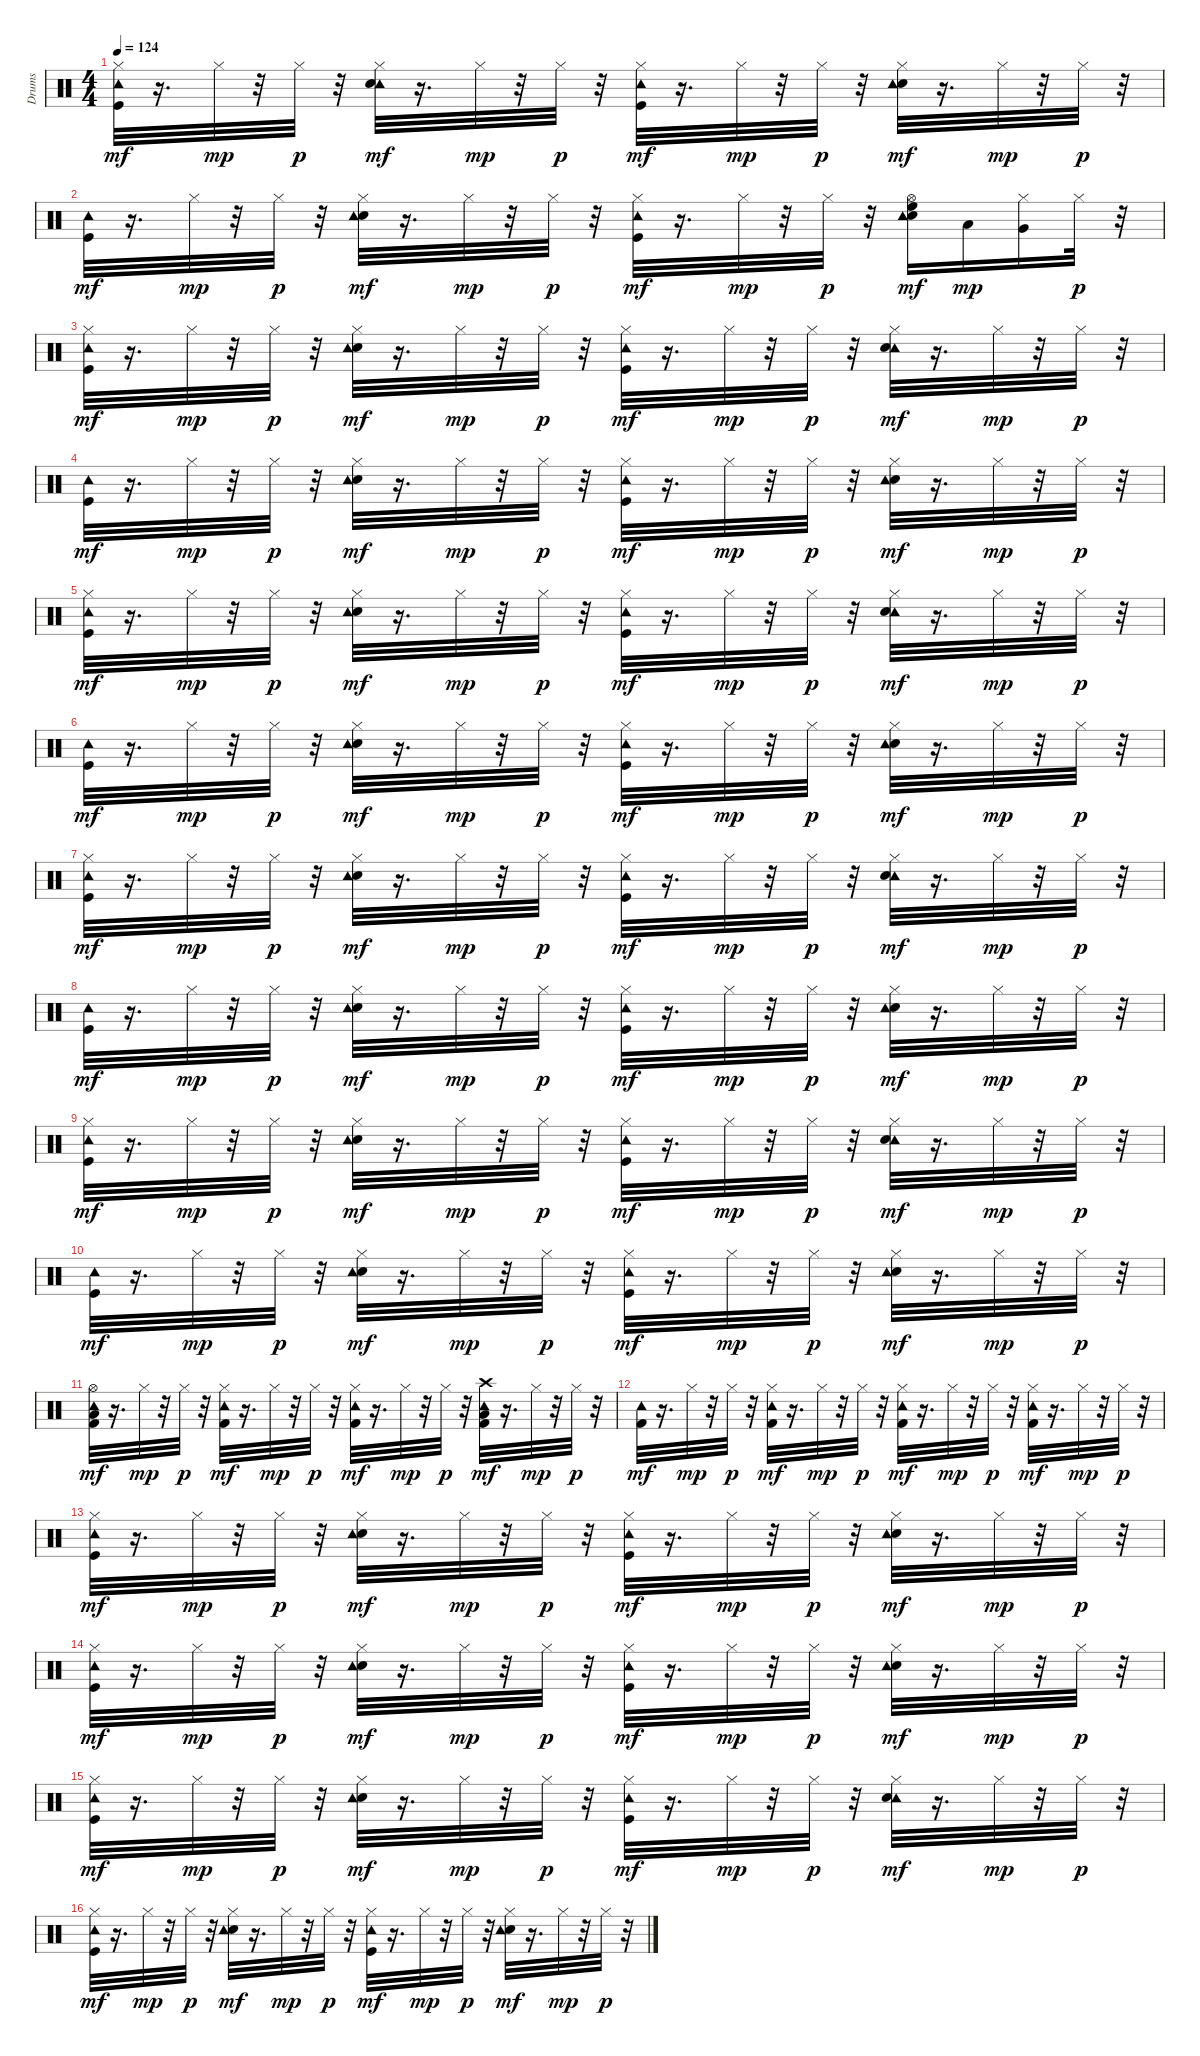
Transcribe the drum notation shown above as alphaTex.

\track ("Drums" "Drums") {instrument percussion}
\staff {score}
\articulation defaults
\ts (4 4)
\tempo 124
\clef neutral
\ks c
("Tambourine (hit)" "Hi-Hat (closed)" "Kick (hit)").32{dy mf} r.16{d} "Hi-Hat (closed)".32{dy mp} r.32 "Hi-Hat (closed)".32{dy p} r.32 ("Tambourine (hit)" "Snare (hit) 2" "Hi-Hat (closed)").32{dy mf} r.16{d} "Hi-Hat (closed)".32{dy mp} r.32 "Hi-Hat (closed)".32{dy p} r.32 ("Kick (hit)" "Tambourine (hit)" "Hi-Hat (closed)").32{dy mf} r.16{d} "Hi-Hat (closed)".32{dy mp} r.32 "Hi-Hat (closed)".32{dy p} r.32 ("Snare (hit) 2" "Tambourine (hit)" "Hi-Hat (closed)").32{dy mf} r.16{d} "Hi-Hat (closed)".32{dy mp} r.32 "Hi-Hat (closed)".32{dy p} r.32 |
("Tambourine (hit)" "Kick (hit)").32{dy mf} r.16{d} "Hi-Hat (closed)".32{dy mp} r.32 "Hi-Hat (closed)".32{dy p} r.32 ("Snare (hit) 2" "Tambourine (hit)" "Hi-Hat (closed)").32{dy mf} r.16{d} "Hi-Hat (closed)".32{dy mp} r.32 "Hi-Hat (closed)".32{dy p} r.32 ("Hi-Hat (closed)" "Kick (hit)" "Tambourine (hit)").32{dy mf} r.16{d} "Hi-Hat (closed)".32{dy mp} r.32 "Hi-Hat (closed)".32{dy p} r.32 ("Hi-Hat (open)" "High Floor Tom (hit)" "Snare (hit) 2" "Tambourine (hit)").16{dy mf} "Low Tom (hit)".16{dy mp} ("Very Low Tom (hit)" "Hi-Hat (closed)").16 "Hi-Hat (closed)".32{dy p} r.32 |
("Kick (hit)" "Tambourine (hit)" "Hi-Hat (closed)").32{dy mf} r.16{d} "Hi-Hat (closed)".32{dy mp} r.32 "Hi-Hat (closed)".32{dy p} r.32 ("Snare (hit) 2" "Tambourine (hit)" "Hi-Hat (closed)").32{dy mf} r.16{d} "Hi-Hat (closed)".32{dy mp} r.32 "Hi-Hat (closed)".32{dy p} r.32 ("Kick (hit)" "Tambourine (hit)" "Hi-Hat (closed)").32{dy mf} r.16{d} "Hi-Hat (closed)".32{dy mp} r.32 "Hi-Hat (closed)".32{dy p} r.32 ("Tambourine (hit)" "Snare (hit) 2" "Hi-Hat (closed)").32{dy mf} r.16{d} "Hi-Hat (closed)".32{dy mp} r.32 "Hi-Hat (closed)".32{dy p} r.32 |
("Tambourine (hit)" "Kick (hit)").32{dy mf} r.16{d} "Hi-Hat (closed)".32{dy mp} r.32 "Hi-Hat (closed)".32{dy p} r.32 ("Snare (hit) 2" "Tambourine (hit)" "Hi-Hat (closed)").32{dy mf} r.16{d} "Hi-Hat (closed)".32{dy mp} r.32 "Hi-Hat (closed)".32{dy p} r.32 ("Kick (hit)" "Tambourine (hit)" "Hi-Hat (closed)").32{dy mf} r.16{d} "Hi-Hat (closed)".32{dy mp} r.32 "Hi-Hat (closed)".32{dy p} r.32 ("Snare (hit) 2" "Tambourine (hit)" "Hi-Hat (closed)").32{dy mf} r.16{d} "Hi-Hat (closed)".32{dy mp} r.32 "Hi-Hat (closed)".32{dy p} r.32 |
("Kick (hit)" "Tambourine (hit)" "Hi-Hat (closed)").32{dy mf} r.16{d} "Hi-Hat (closed)".32{dy mp} r.32 "Hi-Hat (closed)".32{dy p} r.32 ("Snare (hit) 2" "Tambourine (hit)" "Hi-Hat (closed)").32{dy mf} r.16{d} "Hi-Hat (closed)".32{dy mp} r.32 "Hi-Hat (closed)".32{dy p} r.32 ("Kick (hit)" "Tambourine (hit)" "Hi-Hat (closed)").32{dy mf} r.16{d} "Hi-Hat (closed)".32{dy mp} r.32 "Hi-Hat (closed)".32{dy p} r.32 ("Tambourine (hit)" "Snare (hit) 2" "Hi-Hat (closed)").32{dy mf} r.16{d} "Hi-Hat (closed)".32{dy mp} r.32 "Hi-Hat (closed)".32{dy p} r.32 |
("Tambourine (hit)" "Kick (hit)").32{dy mf} r.16{d} "Hi-Hat (closed)".32{dy mp} r.32 "Hi-Hat (closed)".32{dy p} r.32 ("Snare (hit) 2" "Tambourine (hit)" "Hi-Hat (closed)").32{dy mf} r.16{d} "Hi-Hat (closed)".32{dy mp} r.32 "Hi-Hat (closed)".32{dy p} r.32 ("Kick (hit)" "Tambourine (hit)" "Hi-Hat (closed)").32{dy mf} r.16{d} "Hi-Hat (closed)".32{dy mp} r.32 "Hi-Hat (closed)".32{dy p} r.32 ("Snare (hit) 2" "Tambourine (hit)" "Hi-Hat (closed)").32{dy mf} r.16{d} "Hi-Hat (closed)".32{dy mp} r.32 "Hi-Hat (closed)".32{dy p} r.32 |
("Kick (hit)" "Tambourine (hit)" "Hi-Hat (closed)").32{dy mf} r.16{d} "Hi-Hat (closed)".32{dy mp} r.32 "Hi-Hat (closed)".32{dy p} r.32 ("Snare (hit) 2" "Tambourine (hit)" "Hi-Hat (closed)").32{dy mf} r.16{d} "Hi-Hat (closed)".32{dy mp} r.32 "Hi-Hat (closed)".32{dy p} r.32 ("Kick (hit)" "Tambourine (hit)" "Hi-Hat (closed)").32{dy mf} r.16{d} "Hi-Hat (closed)".32{dy mp} r.32 "Hi-Hat (closed)".32{dy p} r.32 ("Tambourine (hit)" "Snare (hit) 2" "Hi-Hat (closed)").32{dy mf} r.16{d} "Hi-Hat (closed)".32{dy mp} r.32 "Hi-Hat (closed)".32{dy p} r.32 |
("Tambourine (hit)" "Kick (hit)").32{dy mf} r.16{d} "Hi-Hat (closed)".32{dy mp} r.32 "Hi-Hat (closed)".32{dy p} r.32 ("Snare (hit) 2" "Tambourine (hit)" "Hi-Hat (closed)").32{dy mf} r.16{d} "Hi-Hat (closed)".32{dy mp} r.32 "Hi-Hat (closed)".32{dy p} r.32 ("Kick (hit)" "Tambourine (hit)" "Hi-Hat (closed)").32{dy mf} r.16{d} "Hi-Hat (closed)".32{dy mp} r.32 "Hi-Hat (closed)".32{dy p} r.32 ("Snare (hit) 2" "Tambourine (hit)" "Hi-Hat (closed)").32{dy mf} r.16{d} "Hi-Hat (closed)".32{dy mp} r.32 "Hi-Hat (closed)".32{dy p} r.32 |
("Kick (hit)" "Tambourine (hit)" "Hi-Hat (closed)").32{dy mf} r.16{d} "Hi-Hat (closed)".32{dy mp} r.32 "Hi-Hat (closed)".32{dy p} r.32 ("Snare (hit) 2" "Tambourine (hit)" "Hi-Hat (closed)").32{dy mf} r.16{d} "Hi-Hat (closed)".32{dy mp} r.32 "Hi-Hat (closed)".32{dy p} r.32 ("Kick (hit)" "Tambourine (hit)" "Hi-Hat (closed)").32{dy mf} r.16{d} "Hi-Hat (closed)".32{dy mp} r.32 "Hi-Hat (closed)".32{dy p} r.32 ("Tambourine (hit)" "Snare (hit) 2" "Hi-Hat (closed)").32{dy mf} r.16{d} "Hi-Hat (closed)".32{dy mp} r.32 "Hi-Hat (closed)".32{dy p} r.32 |
("Tambourine (hit)" "Kick (hit)").32{dy mf} r.16{d} "Hi-Hat (closed)".32{dy mp} r.32 "Hi-Hat (closed)".32{dy p} r.32 ("Snare (hit) 2" "Tambourine (hit)" "Hi-Hat (closed)").32{dy mf} r.16{d} "Hi-Hat (closed)".32{dy mp} r.32 "Hi-Hat (closed)".32{dy p} r.32 ("Kick (hit)" "Tambourine (hit)" "Hi-Hat (closed)").32{dy mf} r.16{d} "Hi-Hat (closed)".32{dy mp} r.32 "Hi-Hat (closed)".32{dy p} r.32 ("Snare (hit) 2" "Tambourine (hit)" "Hi-Hat (closed)").32{dy mf} r.16{d} "Hi-Hat (closed)".32{dy mp} r.32 "Hi-Hat (closed)".32{dy p} r.32 |
("Tambourine (hit)" "Low Floor Tom (hit)" "Hi-Hat (open)" "Kick (hit) 2").32{dy mf} r.16{d} "Hi-Hat (closed)".32{dy mp} r.32 "Hi-Hat (closed)".32{dy p} r.32 ("Kick (hit) 2" "Tambourine (hit)" "Hi-Hat (closed)").32{dy mf} r.16{d} "Hi-Hat (closed)".32{dy mp} r.32 "Hi-Hat (closed)".32{dy p} r.32 ("Kick (hit) 2" "Tambourine (hit)" "Hi-Hat (closed)").32{dy mf} r.16{d} "Hi-Hat (closed)".32{dy mp} r.32 "Hi-Hat (closed)".32{dy p} r.32 ("Tambourine (hit)" "Crash high (hit)" "Kick (hit) 2" "Low Floor Tom (hit)").32{dy mf} r.16{d} "Hi-Hat (closed)".32{dy mp} r.32 "Hi-Hat (closed)".32{dy p} r.32 |
("Kick (hit) 2" "Tambourine (hit)").32{dy mf} r.16{d} "Hi-Hat (closed)".32{dy mp} r.32 "Hi-Hat (closed)".32{dy p} r.32 ("Kick (hit) 2" "Tambourine (hit)" "Hi-Hat (closed)").32{dy mf} r.16{d} "Hi-Hat (closed)".32{dy mp} r.32 "Hi-Hat (closed)".32{dy p} r.32 ("Tambourine (hit)" "Kick (hit) 2" "Hi-Hat (closed)").32{dy mf} r.16{d} "Hi-Hat (closed)".32{dy mp} r.32 "Hi-Hat (closed)".32{dy p} r.32 ("Kick (hit) 2" "Tambourine (hit)" "Hi-Hat (closed)").32{dy mf} r.16{d} "Hi-Hat (closed)".32{dy mp} r.32 "Hi-Hat (closed)".32{dy p} r.32 |
("Tambourine (hit)" "Hi-Hat (closed)" "Kick (hit)").32{dy mf} r.16{d} "Hi-Hat (closed)".32{dy mp} r.32 "Hi-Hat (closed)".32{dy p} r.32 ("Snare (hit) 2" "Tambourine (hit)" "Hi-Hat (closed)").32{dy mf} r.16{d} "Hi-Hat (closed)".32{dy mp} r.32 "Hi-Hat (closed)".32{dy p} r.32 ("Kick (hit)" "Tambourine (hit)" "Hi-Hat (closed)").32{dy mf} r.16{d} "Hi-Hat (closed)".32{dy mp} r.32 "Hi-Hat (closed)".32{dy p} r.32 ("Hi-Hat (closed)" "Snare (hit) 2" "Tambourine (hit)").32{dy mf} r.16{d} "Hi-Hat (closed)".32{dy mp} r.32 "Hi-Hat (closed)".32{dy p} r.32 |
("Tambourine (hit)" "Hi-Hat (closed)" "Kick (hit)").32{dy mf} r.16{d} "Hi-Hat (closed)".32{dy mp} r.32 "Hi-Hat (closed)".32{dy p} r.32 ("Snare (hit) 2" "Tambourine (hit)" "Hi-Hat (closed)").32{dy mf} r.16{d} "Hi-Hat (closed)".32{dy mp} r.32 "Hi-Hat (closed)".32{dy p} r.32 ("Kick (hit)" "Tambourine (hit)" "Hi-Hat (closed)").32{dy mf} r.16{d} "Hi-Hat (closed)".32{dy mp} r.32 "Hi-Hat (closed)".32{dy p} r.32 ("Snare (hit) 2" "Tambourine (hit)" "Hi-Hat (closed)").32{dy mf} r.16{d} "Hi-Hat (closed)".32{dy mp} r.32 "Hi-Hat (closed)".32{dy p} r.32 |
("Kick (hit)" "Tambourine (hit)" "Hi-Hat (closed)").32{dy mf} r.16{d} "Hi-Hat (closed)".32{dy mp} r.32 "Hi-Hat (closed)".32{dy p} r.32 ("Snare (hit) 2" "Tambourine (hit)" "Hi-Hat (closed)").32{dy mf} r.16{d} "Hi-Hat (closed)".32{dy mp} r.32 "Hi-Hat (closed)".32{dy p} r.32 ("Kick (hit)" "Tambourine (hit)" "Hi-Hat (closed)").32{dy mf} r.16{d} "Hi-Hat (closed)".32{dy mp} r.32 "Hi-Hat (closed)".32{dy p} r.32 ("Tambourine (hit)" "Snare (hit) 2" "Hi-Hat (closed)").32{dy mf} r.16{d} "Hi-Hat (closed)".32{dy mp} r.32 "Hi-Hat (closed)".32{dy p} r.32 |
("Tambourine (hit)" "Hi-Hat (closed)" "Kick (hit)").32{dy mf} r.16{d} "Hi-Hat (closed)".32{dy mp} r.32 "Hi-Hat (closed)".32{dy p} r.32 ("Snare (hit) 2" "Tambourine (hit)" "Hi-Hat (closed)").32{dy mf} r.16{d} "Hi-Hat (closed)".32{dy mp} r.32 "Hi-Hat (closed)".32{dy p} r.32 ("Kick (hit)" "Tambourine (hit)" "Hi-Hat (closed)").32{dy mf} r.16{d} "Hi-Hat (closed)".32{dy mp} r.32 "Hi-Hat (closed)".32{dy p} r.32 ("Snare (hit) 2" "Tambourine (hit)" "Hi-Hat (closed)").32{dy mf} r.16{d} "Hi-Hat (closed)".32{dy mp} r.32 "Hi-Hat (closed)".32{dy p} r.32
